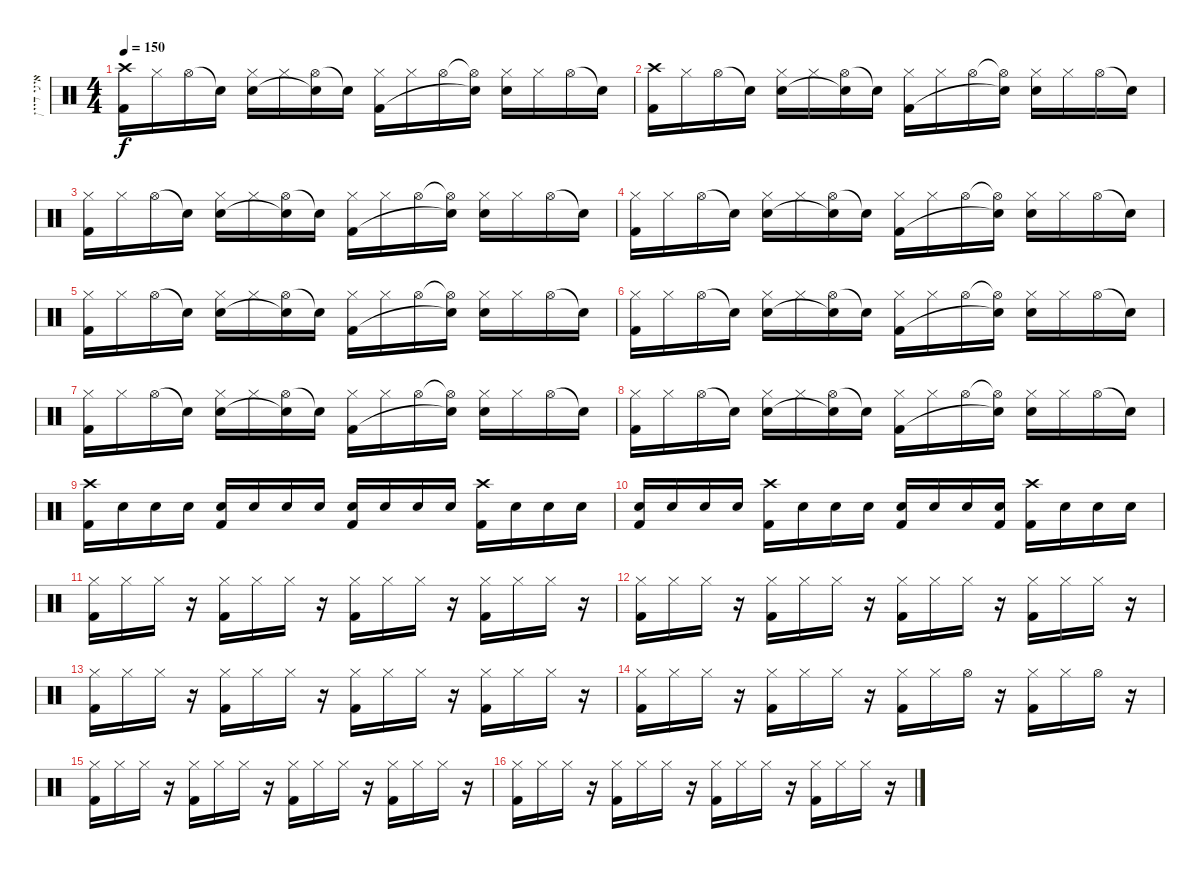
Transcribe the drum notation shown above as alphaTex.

\track ("איגי דיין" "איגי דיין") {instrument percussion}
\staff {score}
\articulation defaults
\ts (4 4)
\tempo 150
\clef neutral
\ks c
("Crash high (hit)" "Kick (hit) 2").16{dy f} "Hi-Hat (closed)".16 "Hi-Hat (open)".16 "Electric Snare (hit)"{t}.16 ("Hi-Hat (closed)" "Electric Snare (hit)").16 "Hi-Hat (closed)".16 ("Hi-Hat (open)" "Snare (hit)"{t}).16 "Electric Snare (hit)"{t}.16 ("Hi-Hat (closed)" "Kick (hit) 2").16 "Hi-Hat (closed)".16 "Hi-Hat (open)".16 ("Hi-Hat (open)"{t} "Electric Snare (hit)"{t}).16 ("Hi-Hat (closed)" "Electric Snare (hit)").16 "Hi-Hat (closed)".16 "Hi-Hat (open)".16 "Snare (hit)"{t}.16 |
("Crash high (hit)" "Kick (hit) 2").16 "Hi-Hat (closed)".16 "Hi-Hat (open)".16 "Electric Snare (hit)"{t}.16 ("Hi-Hat (closed)" "Electric Snare (hit)").16 "Hi-Hat (closed)".16 ("Hi-Hat (open)" "Snare (hit)"{t}).16 "Electric Snare (hit)"{t}.16 ("Hi-Hat (closed)" "Kick (hit) 2").16 "Hi-Hat (closed)".16 "Hi-Hat (open)".16 ("Hi-Hat (open)"{t} "Electric Snare (hit)"{t}).16 ("Hi-Hat (closed)" "Electric Snare (hit)").16 "Hi-Hat (closed)".16 "Hi-Hat (open)".16 "Snare (hit)"{t}.16 |
("Hi-Hat (closed)" "Kick (hit) 2").16 "Hi-Hat (closed)".16 "Hi-Hat (open)".16 "Electric Snare (hit)"{t}.16 ("Hi-Hat (closed)" "Electric Snare (hit)").16 "Hi-Hat (closed)".16 ("Hi-Hat (open)" "Snare (hit)"{t}).16 "Electric Snare (hit)"{t}.16 ("Hi-Hat (closed)" "Kick (hit) 2").16 "Hi-Hat (closed)".16 "Hi-Hat (open)".16 ("Hi-Hat (open)"{t} "Electric Snare (hit)"{t}).16 ("Hi-Hat (closed)" "Electric Snare (hit)").16 "Hi-Hat (closed)".16 "Hi-Hat (open)".16 "Snare (hit)"{t}.16 |
("Hi-Hat (closed)" "Kick (hit) 2").16 "Hi-Hat (closed)".16 "Hi-Hat (open)".16 "Electric Snare (hit)"{t}.16 ("Hi-Hat (closed)" "Electric Snare (hit)").16 "Hi-Hat (closed)".16 ("Hi-Hat (open)" "Snare (hit)"{t}).16 "Electric Snare (hit)"{t}.16 ("Hi-Hat (closed)" "Kick (hit) 2").16 "Hi-Hat (closed)".16 "Hi-Hat (open)".16 ("Hi-Hat (open)"{t} "Electric Snare (hit)"{t}).16 ("Hi-Hat (closed)" "Electric Snare (hit)").16 "Hi-Hat (closed)".16 "Hi-Hat (open)".16 "Snare (hit)"{t}.16 |
("Hi-Hat (closed)" "Kick (hit) 2").16 "Hi-Hat (closed)".16 "Hi-Hat (open)".16 "Electric Snare (hit)"{t}.16 ("Hi-Hat (closed)" "Electric Snare (hit)").16 "Hi-Hat (closed)".16 ("Hi-Hat (open)" "Snare (hit)"{t}).16 "Electric Snare (hit)"{t}.16 ("Hi-Hat (closed)" "Kick (hit) 2").16 "Hi-Hat (closed)".16 "Hi-Hat (open)".16 ("Hi-Hat (open)"{t} "Electric Snare (hit)"{t}).16 ("Hi-Hat (closed)" "Electric Snare (hit)").16 "Hi-Hat (closed)".16 "Hi-Hat (open)".16 "Snare (hit)"{t}.16 |
("Hi-Hat (closed)" "Kick (hit) 2").16 "Hi-Hat (closed)".16 "Hi-Hat (open)".16 "Electric Snare (hit)"{t}.16 ("Hi-Hat (closed)" "Electric Snare (hit)").16 "Hi-Hat (closed)".16 ("Hi-Hat (open)" "Snare (hit)"{t}).16 "Electric Snare (hit)"{t}.16 ("Hi-Hat (closed)" "Kick (hit) 2").16 "Hi-Hat (closed)".16 "Hi-Hat (open)".16 ("Hi-Hat (open)"{t} "Electric Snare (hit)"{t}).16 ("Hi-Hat (closed)" "Electric Snare (hit)").16 "Hi-Hat (closed)".16 "Hi-Hat (open)".16 "Snare (hit)"{t}.16 |
("Hi-Hat (closed)" "Kick (hit) 2").16 "Hi-Hat (closed)".16 "Hi-Hat (open)".16 "Electric Snare (hit)"{t}.16 ("Hi-Hat (closed)" "Electric Snare (hit)").16 "Hi-Hat (closed)".16 ("Hi-Hat (open)" "Snare (hit)"{t}).16 "Electric Snare (hit)"{t}.16 ("Hi-Hat (closed)" "Kick (hit) 2").16 "Hi-Hat (closed)".16 "Hi-Hat (open)".16 ("Hi-Hat (open)"{t} "Electric Snare (hit)"{t}).16 ("Hi-Hat (closed)" "Electric Snare (hit)").16 "Hi-Hat (closed)".16 "Hi-Hat (open)".16 "Snare (hit)"{t}.16 |
("Hi-Hat (closed)" "Kick (hit) 2").16 "Hi-Hat (closed)".16 "Hi-Hat (open)".16 "Electric Snare (hit)"{t}.16 ("Hi-Hat (closed)" "Electric Snare (hit)").16 "Hi-Hat (closed)".16 ("Hi-Hat (open)" "Snare (hit)"{t}).16 "Electric Snare (hit)"{t}.16 ("Hi-Hat (closed)" "Kick (hit) 2").16 "Hi-Hat (closed)".16 "Hi-Hat (open)".16 ("Hi-Hat (open)"{t} "Electric Snare (hit)"{t}).16 ("Hi-Hat (closed)" "Electric Snare (hit)").16 "Hi-Hat (closed)".16 "Hi-Hat (open)".16 "Snare (hit)"{t}.16 |
("Crash high (hit)" "Kick (hit) 2").16 "Electric Snare (hit)".16 "Electric Snare (hit)".16 "Electric Snare (hit)".16 ("Electric Snare (hit)" "Kick (hit) 2").16 "Electric Snare (hit)".16 "Electric Snare (hit)".16 "Electric Snare (hit)".16 ("Electric Snare (hit)" "Kick (hit) 2").16 "Electric Snare (hit)".16 "Electric Snare (hit)".16 "Electric Snare (hit)".16 ("Crash high (hit)" "Kick (hit) 2").16 "Electric Snare (hit)".16 "Electric Snare (hit)".16 "Electric Snare (hit)".16 |
("Electric Snare (hit)" "Kick (hit) 2").16 "Electric Snare (hit)".16 "Electric Snare (hit)".16 "Electric Snare (hit)".16 ("Crash high (hit)" "Kick (hit) 2").16 "Electric Snare (hit)".16 "Electric Snare (hit)".16 "Electric Snare (hit)".16 ("Electric Snare (hit)" "Kick (hit) 2").16 "Electric Snare (hit)".16 "Electric Snare (hit)".16 ("Electric Snare (hit)" "Kick (hit) 2").16 ("Crash high (hit)" "Kick (hit) 2").16 "Electric Snare (hit)".16 "Electric Snare (hit)".16 "Electric Snare (hit)".16 |
("Hi-Hat (closed)" "Kick (hit) 2").16 "Hi-Hat (closed)".16 "Hi-Hat (closed)".16 r.16 ("Hi-Hat (closed)" "Kick (hit) 2").16 "Hi-Hat (closed)".16 "Hi-Hat (closed)".16 r.16 ("Hi-Hat (closed)" "Kick (hit) 2").16 "Hi-Hat (closed)".16 "Hi-Hat (closed)".16 r.16 ("Hi-Hat (closed)" "Kick (hit) 2").16 "Hi-Hat (closed)".16 "Hi-Hat (closed)".16 r.16 |
("Hi-Hat (closed)" "Kick (hit) 2").16 "Hi-Hat (closed)".16 "Hi-Hat (closed)".16 r.16 ("Hi-Hat (closed)" "Kick (hit) 2").16 "Hi-Hat (closed)".16 "Hi-Hat (closed)".16 r.16 ("Hi-Hat (closed)" "Kick (hit) 2").16 "Hi-Hat (closed)".16 "Hi-Hat (closed)".16 r.16 ("Hi-Hat (closed)" "Kick (hit) 2").16 "Hi-Hat (closed)".16 "Hi-Hat (closed)".16 r.16 |
("Hi-Hat (closed)" "Kick (hit) 2").16 "Hi-Hat (closed)".16 "Hi-Hat (closed)".16 r.16 ("Hi-Hat (closed)" "Kick (hit) 2").16 "Hi-Hat (closed)".16 "Hi-Hat (closed)".16 r.16 ("Hi-Hat (closed)" "Kick (hit) 2").16 "Hi-Hat (closed)".16 "Hi-Hat (closed)".16 r.16 ("Hi-Hat (closed)" "Kick (hit) 2").16 "Hi-Hat (closed)".16 "Hi-Hat (closed)".16 r.16 |
("Hi-Hat (closed)" "Kick (hit) 2").16 "Hi-Hat (closed)".16 "Hi-Hat (closed)".16 r.16 ("Hi-Hat (closed)" "Kick (hit) 2").16 "Hi-Hat (closed)".16 "Hi-Hat (closed)".16 r.16 ("Hi-Hat (closed)" "Kick (hit) 2").16 "Hi-Hat (closed)".16 "Hi-Hat (open)".16 r.16 ("Hi-Hat (closed)" "Kick (hit) 2").16 "Hi-Hat (closed)".16 "Hi-Hat (open)".16 r.16 |
("Hi-Hat (closed)" "Kick (hit) 2").16 "Hi-Hat (closed)".16 "Hi-Hat (closed)".16 r.16 ("Hi-Hat (closed)" "Kick (hit) 2").16 "Hi-Hat (closed)".16 "Hi-Hat (closed)".16 r.16 ("Hi-Hat (closed)" "Kick (hit) 2").16 "Hi-Hat (closed)".16 "Hi-Hat (closed)".16 r.16 ("Hi-Hat (closed)" "Kick (hit) 2").16 "Hi-Hat (closed)".16 "Hi-Hat (closed)".16 r.16 |
("Hi-Hat (closed)" "Kick (hit) 2").16 "Hi-Hat (closed)".16 "Hi-Hat (closed)".16 r.16 ("Hi-Hat (closed)" "Kick (hit) 2").16 "Hi-Hat (closed)".16 "Hi-Hat (closed)".16 r.16 ("Hi-Hat (closed)" "Kick (hit) 2").16 "Hi-Hat (closed)".16 "Hi-Hat (closed)".16 r.16 ("Hi-Hat (closed)" "Kick (hit) 2").16 "Hi-Hat (closed)".16 "Hi-Hat (closed)".16 r.16
